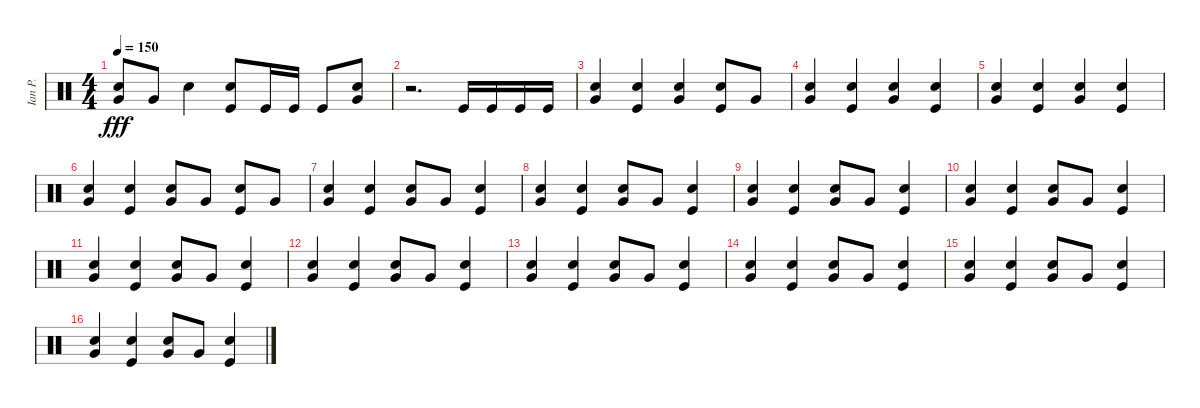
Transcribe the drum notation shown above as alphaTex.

\track ("Ian P." "Ian P.") {instrument percussion}
\staff {score}
\articulation defaults
\ts (4 4)
\tempo 150
\clef neutral
\ks c
("Very Low Tom (hit)" "Electric Snare (hit)").8{dy fff} "Very Low Tom (hit)".8 "Electric Snare (hit)".4 ("Kick (hit)" "Electric Snare (hit)").8 "Kick (hit)".16 "Kick (hit)".16 "Kick (hit)".8 ("Electric Snare (hit)" "Very Low Tom (hit)").8 |
r.2{d} "Kick (hit)".16 "Kick (hit)".16 "Kick (hit)".16 "Kick (hit)".16 |
("Very Low Tom (hit)" "Electric Snare (hit)").4 ("Kick (hit)" "Electric Snare (hit)").4 ("Very Low Tom (hit)" "Electric Snare (hit)").4 ("Kick (hit)" "Electric Snare (hit)").8 "Very Low Tom (hit)".8 |
("Very Low Tom (hit)" "Electric Snare (hit)").4 ("Kick (hit)" "Electric Snare (hit)").4 ("Very Low Tom (hit)" "Electric Snare (hit)").4 ("Kick (hit)" "Electric Snare (hit)").4 |
("Very Low Tom (hit)" "Electric Snare (hit)").4 ("Kick (hit)" "Electric Snare (hit)").4 ("Very Low Tom (hit)" "Electric Snare (hit)").4 ("Kick (hit)" "Electric Snare (hit)").4 |
("Very Low Tom (hit)" "Electric Snare (hit)").4 ("Kick (hit)" "Electric Snare (hit)").4 ("Very Low Tom (hit)" "Electric Snare (hit)").8 "Very Low Tom (hit)".8 ("Kick (hit)" "Electric Snare (hit)").8 "Very Low Tom (hit)".8 |
("Very Low Tom (hit)" "Electric Snare (hit)").4 ("Kick (hit)" "Electric Snare (hit)").4 ("Very Low Tom (hit)" "Electric Snare (hit)").8 "Very Low Tom (hit)".8 ("Kick (hit)" "Electric Snare (hit)").4 |
("Very Low Tom (hit)" "Electric Snare (hit)").4 ("Kick (hit)" "Electric Snare (hit)").4 ("Very Low Tom (hit)" "Electric Snare (hit)").8 "Very Low Tom (hit)".8 ("Kick (hit)" "Electric Snare (hit)").4 |
("Very Low Tom (hit)" "Electric Snare (hit)").4 ("Kick (hit)" "Electric Snare (hit)").4 ("Very Low Tom (hit)" "Electric Snare (hit)").8 "Very Low Tom (hit)".8 ("Kick (hit)" "Electric Snare (hit)").4 |
("Very Low Tom (hit)" "Electric Snare (hit)").4 ("Kick (hit)" "Electric Snare (hit)").4 ("Very Low Tom (hit)" "Electric Snare (hit)").8 "Very Low Tom (hit)".8 ("Kick (hit)" "Electric Snare (hit)").4 |
("Very Low Tom (hit)" "Electric Snare (hit)").4 ("Kick (hit)" "Electric Snare (hit)").4 ("Very Low Tom (hit)" "Electric Snare (hit)").8 "Very Low Tom (hit)".8 ("Kick (hit)" "Electric Snare (hit)").4 |
("Very Low Tom (hit)" "Electric Snare (hit)").4 ("Kick (hit)" "Electric Snare (hit)").4 ("Very Low Tom (hit)" "Electric Snare (hit)").8 "Very Low Tom (hit)".8 ("Kick (hit)" "Electric Snare (hit)").4 |
("Very Low Tom (hit)" "Electric Snare (hit)").4 ("Kick (hit)" "Electric Snare (hit)").4 ("Very Low Tom (hit)" "Electric Snare (hit)").8 "Very Low Tom (hit)".8 ("Kick (hit)" "Electric Snare (hit)").4 |
("Very Low Tom (hit)" "Electric Snare (hit)").4 ("Kick (hit)" "Electric Snare (hit)").4 ("Very Low Tom (hit)" "Electric Snare (hit)").8 "Very Low Tom (hit)".8 ("Kick (hit)" "Electric Snare (hit)").4 |
("Very Low Tom (hit)" "Electric Snare (hit)").4 ("Kick (hit)" "Electric Snare (hit)").4 ("Very Low Tom (hit)" "Electric Snare (hit)").8 "Very Low Tom (hit)".8 ("Kick (hit)" "Electric Snare (hit)").4 |
("Very Low Tom (hit)" "Electric Snare (hit)").4 ("Kick (hit)" "Electric Snare (hit)").4 ("Very Low Tom (hit)" "Electric Snare (hit)").8 "Very Low Tom (hit)".8 ("Kick (hit)" "Electric Snare (hit)").4
